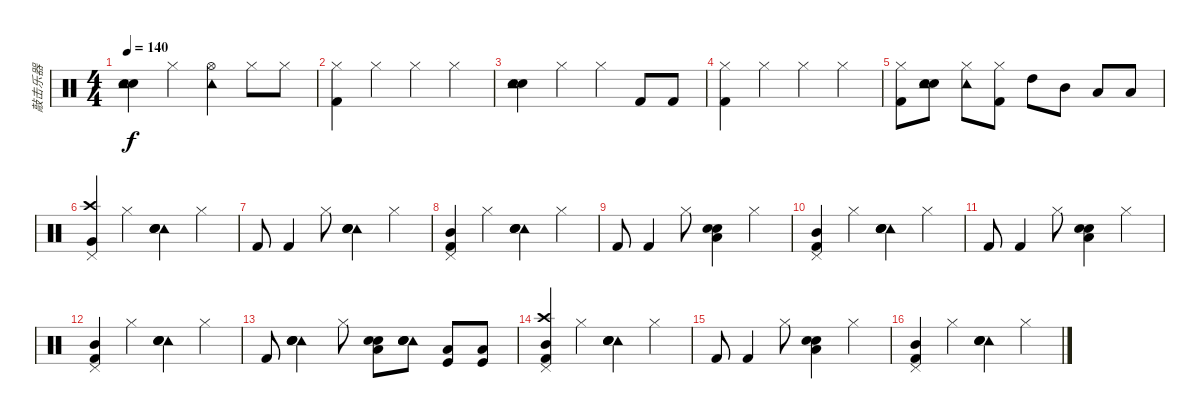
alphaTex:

\track ("敲击乐器" "敲击乐器") {instrument percussion bank 3}
\staff {score}
\articulation defaults
\ts (4 4)
\tempo 140
\clef neutral
\ks c
("Snare (hit) 2" "Electric Snare (hit)" "Tambourine (hit)").4{dy f} "Hi-Hat (closed)".4 ("Hi-Hat (open)" "Tambourine (hit)").4 "Hi-Hat (closed)".8 "Hi-Hat (closed)".8 |
("Kick (hit) 2" "Hi-Hat (closed)").4 "Hi-Hat (closed)".4 "Hi-Hat (closed)".4 "Hi-Hat (closed)".4 |
("Snare (hit) 2" "Electric Snare (hit)" "Tambourine (hit)").4 "Hi-Hat (closed)".4 "Hi-Hat (closed)".4 "Kick (hit) 2".8 "Kick (hit) 2".8 |
("Kick (hit) 2" "Hi-Hat (closed)").4 "Hi-Hat (closed)".4 "Hi-Hat (closed)".4 "Hi-Hat (closed)".4 |
("Kick (hit) 2" "Hi-Hat (closed)").8 ("Snare (hit) 2" "Electric Snare (hit)" "Tambourine (hit)").8 ("Hi-Hat (closed)" "Tambourine (hit)").8 ("Kick (hit) 2" "Hi-Hat (closed)").8 "High Tom (hit)".8 "Mid Tom (hit)".8 "Low Tom (hit)".8 "Low Tom (hit)".8 |
("Very Low Tom (hit)" "Crash high (hit)" "Pedal Hi-Hat (hit)").4 "Hi-Hat (closed)".4 ("Tambourine (hit)" "Electric Snare (hit)" "Hand Clap (hit)" "Snare (hit) 2").4 "Hi-Hat (closed)".4 |
"Kick (hit) 2".8 "Kick (hit) 2".4 "Hi-Hat (closed)".8 ("Tambourine (hit)" "Electric Snare (hit)" "Snare (hit) 2" "Hand Clap (hit)").4 "Hi-Hat (closed)".4 |
("Mid Tom (hit)" "Kick (hit) 2" "Pedal Hi-Hat (hit)").4 "Hi-Hat (closed)".4 ("Tambourine (hit)" "Electric Snare (hit)" "Hand Clap (hit)" "Snare (hit) 2").4 "Hi-Hat (closed)".4 |
"Kick (hit) 2".8 "Kick (hit) 2".4 "Hi-Hat (closed)".8 ("Low Tom (hit)" "Snare (hit) 2" "Hand Clap (hit)").4 "Hi-Hat (closed)".4 |
("Mid Tom (hit)" "Kick (hit) 2" "Pedal Hi-Hat (hit)").4 "Hi-Hat (closed)".4 ("Tambourine (hit)" "Electric Snare (hit)" "Hand Clap (hit)" "Snare (hit) 2").4 "Hi-Hat (closed)".4 |
"Kick (hit) 2".8 "Kick (hit) 2".4 "Hi-Hat (closed)".8 ("Low Tom (hit)" "Snare (hit) 2" "Hand Clap (hit)").4 "Hi-Hat (closed)".4 |
("Mid Tom (hit)" "Kick (hit) 2" "Pedal Hi-Hat (hit)").4 "Hi-Hat (closed)".4 ("Tambourine (hit)" "Electric Snare (hit)" "Hand Clap (hit)" "Snare (hit) 2").4 "Hi-Hat (closed)".4 |
"Kick (hit) 2".8 ("Tambourine (hit)" "Electric Snare (hit)" "Hand Clap (hit)" "Snare (hit) 2").4 "Hi-Hat (closed)".8 ("Low Tom (hit)" "Snare (hit) 2" "Hand Clap (hit)").8 ("Tambourine (hit)" "Electric Snare (hit)" "Hand Clap (hit)" "Snare (hit) 2").8 ("Low Floor Tom (hit)" "Kick (hit)").8 ("Low Floor Tom (hit)" "Kick (hit)").8 |
("Crash high (hit)" "Mid Tom (hit)" "Kick (hit) 2" "Pedal Hi-Hat (hit)").4 "Hi-Hat (closed)".4 ("Tambourine (hit)" "Electric Snare (hit)" "Hand Clap (hit)" "Snare (hit) 2").4 "Hi-Hat (closed)".4 |
"Kick (hit) 2".8 "Kick (hit) 2".4 "Hi-Hat (closed)".8 ("Low Tom (hit)" "Snare (hit) 2" "Hand Clap (hit)").4 "Hi-Hat (closed)".4 |
("Mid Tom (hit)" "Kick (hit) 2" "Pedal Hi-Hat (hit)").4 "Hi-Hat (closed)".4 ("Tambourine (hit)" "Electric Snare (hit)" "Hand Clap (hit)" "Snare (hit) 2").4 "Hi-Hat (closed)".4
